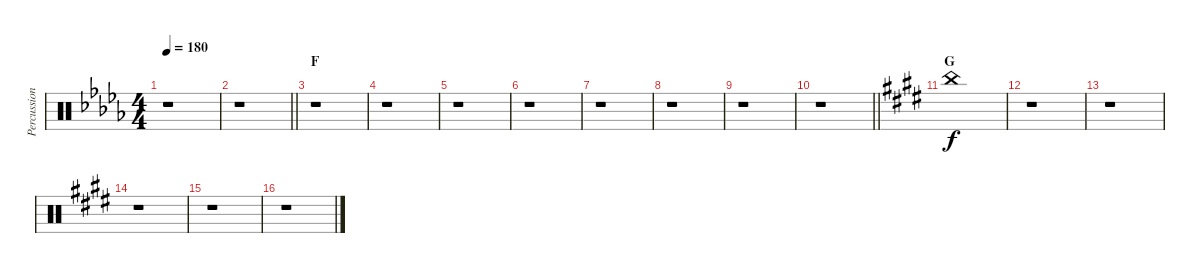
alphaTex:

\track ("Percussion" "Percussion") {instrument percussion}
\staff {score}
\articulation defaults
\ts (4 4)
\tempo 180
\clef neutral
\ks db
r.1{dy f} |
\barLineRight lightlight
r.1 |
\section ("" "F")
r.1 |
r.1 |
r.1 |
r.1 |
r.1 |
r.1 |
r.1 |
\barLineRight lightlight
r.1 |
\section ("" "G")
\ks e "China (hit)".1
|
r.1 |
r.1 |
r.1 |
r.1 |
r.1
